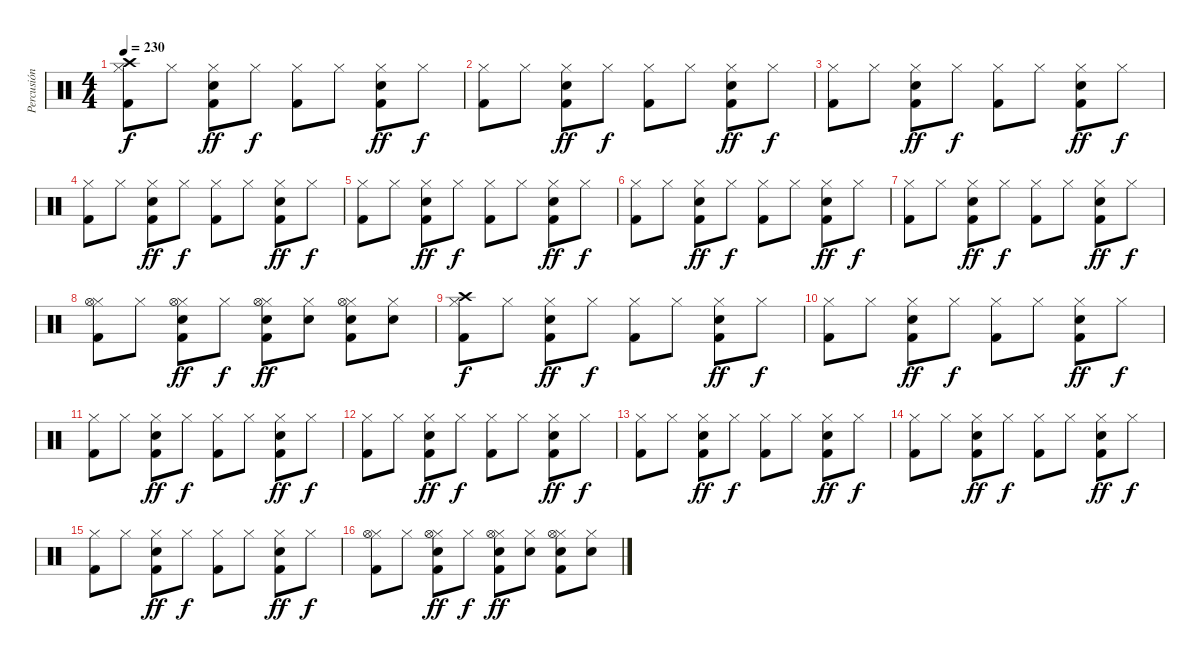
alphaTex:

\track ("Percusión" "Percusión") {instrument percussion}
\staff {score}
\articulation defaults
\ts (4 4)
\tempo 230
\clef neutral
\ks c
("Crash high (hit)" "Hi-Hat (closed)" "Kick (hit) 2").8{dy f} "Hi-Hat (closed)".8 ("Hi-Hat (closed)" "Snare (hit) 2" "Kick (hit) 2").8{dy ff} "Hi-Hat (closed)".8{dy f} ("Hi-Hat (closed)" "Kick (hit) 2").8 "Hi-Hat (closed)".8 ("Hi-Hat (closed)" "Snare (hit) 2" "Kick (hit) 2").8{dy ff} "Hi-Hat (closed)".8{dy f} |
("Hi-Hat (closed)" "Kick (hit) 2").8 "Hi-Hat (closed)".8 ("Hi-Hat (closed)" "Snare (hit) 2" "Kick (hit) 2").8{dy ff} "Hi-Hat (closed)".8{dy f} ("Hi-Hat (closed)" "Kick (hit) 2").8 "Hi-Hat (closed)".8 ("Hi-Hat (closed)" "Snare (hit) 2" "Kick (hit) 2").8{dy ff} "Hi-Hat (closed)".8{dy f} |
("Hi-Hat (closed)" "Kick (hit) 2").8 "Hi-Hat (closed)".8 ("Hi-Hat (closed)" "Snare (hit) 2" "Kick (hit) 2").8{dy ff} "Hi-Hat (closed)".8{dy f} ("Hi-Hat (closed)" "Kick (hit) 2").8 "Hi-Hat (closed)".8 ("Hi-Hat (closed)" "Snare (hit) 2" "Kick (hit) 2").8{dy ff} "Hi-Hat (closed)".8{dy f} |
("Hi-Hat (closed)" "Kick (hit) 2").8 "Hi-Hat (closed)".8 ("Hi-Hat (closed)" "Snare (hit) 2" "Kick (hit) 2").8{dy ff} "Hi-Hat (closed)".8{dy f} ("Hi-Hat (closed)" "Kick (hit) 2").8 "Hi-Hat (closed)".8 ("Hi-Hat (closed)" "Snare (hit) 2" "Kick (hit) 2").8{dy ff} "Hi-Hat (closed)".8{dy f} |
("Hi-Hat (closed)" "Kick (hit) 2").8 "Hi-Hat (closed)".8 ("Hi-Hat (closed)" "Snare (hit) 2" "Kick (hit) 2").8{dy ff} "Hi-Hat (closed)".8{dy f} ("Hi-Hat (closed)" "Kick (hit) 2").8 "Hi-Hat (closed)".8 ("Hi-Hat (closed)" "Snare (hit) 2" "Kick (hit) 2").8{dy ff} "Hi-Hat (closed)".8{dy f} |
("Hi-Hat (closed)" "Kick (hit) 2").8 "Hi-Hat (closed)".8 ("Hi-Hat (closed)" "Snare (hit) 2" "Kick (hit) 2").8{dy ff} "Hi-Hat (closed)".8{dy f} ("Hi-Hat (closed)" "Kick (hit) 2").8 "Hi-Hat (closed)".8 ("Hi-Hat (closed)" "Snare (hit) 2" "Kick (hit) 2").8{dy ff} "Hi-Hat (closed)".8{dy f} |
("Hi-Hat (closed)" "Kick (hit) 2").8 "Hi-Hat (closed)".8 ("Hi-Hat (closed)" "Snare (hit) 2" "Kick (hit) 2").8{dy ff} "Hi-Hat (closed)".8{dy f} ("Hi-Hat (closed)" "Kick (hit) 2").8 "Hi-Hat (closed)".8 ("Hi-Hat (closed)" "Snare (hit) 2" "Kick (hit) 2").8{dy ff} "Hi-Hat (closed)".8{dy f} |
("Hi-Hat (closed)" "Kick (hit) 2" "Hi-Hat (open)").8 "Hi-Hat (closed)".8 ("Hi-Hat (closed)" "Snare (hit) 2" "Kick (hit) 2" "Hi-Hat (open)").8{dy ff} "Hi-Hat (closed)".8{dy f} ("Hi-Hat (closed)" "Snare (hit) 2" "Kick (hit) 2" "Hi-Hat (open)").8{dy ff} ("Hi-Hat (closed)" "Snare (hit) 2").8 ("Hi-Hat (closed)" "Snare (hit) 2" "Kick (hit) 2" "Hi-Hat (open)").8 ("Hi-Hat (closed)" "Snare (hit) 2").8 |
("Crash high (hit)" "Hi-Hat (closed)" "Kick (hit) 2").8{dy f} "Hi-Hat (closed)".8 ("Hi-Hat (closed)" "Snare (hit) 2" "Kick (hit) 2").8{dy ff} "Hi-Hat (closed)".8{dy f} ("Hi-Hat (closed)" "Kick (hit) 2").8 "Hi-Hat (closed)".8 ("Hi-Hat (closed)" "Snare (hit) 2" "Kick (hit) 2").8{dy ff} "Hi-Hat (closed)".8{dy f} |
("Hi-Hat (closed)" "Kick (hit) 2").8 "Hi-Hat (closed)".8 ("Hi-Hat (closed)" "Snare (hit) 2" "Kick (hit) 2").8{dy ff} "Hi-Hat (closed)".8{dy f} ("Hi-Hat (closed)" "Kick (hit) 2").8 "Hi-Hat (closed)".8 ("Hi-Hat (closed)" "Snare (hit) 2" "Kick (hit) 2").8{dy ff} "Hi-Hat (closed)".8{dy f} |
("Hi-Hat (closed)" "Kick (hit) 2").8 "Hi-Hat (closed)".8 ("Hi-Hat (closed)" "Snare (hit) 2" "Kick (hit) 2").8{dy ff} "Hi-Hat (closed)".8{dy f} ("Hi-Hat (closed)" "Kick (hit) 2").8 "Hi-Hat (closed)".8 ("Hi-Hat (closed)" "Snare (hit) 2" "Kick (hit) 2").8{dy ff} "Hi-Hat (closed)".8{dy f} |
("Hi-Hat (closed)" "Kick (hit) 2").8 "Hi-Hat (closed)".8 ("Hi-Hat (closed)" "Snare (hit) 2" "Kick (hit) 2").8{dy ff} "Hi-Hat (closed)".8{dy f} ("Hi-Hat (closed)" "Kick (hit) 2").8 "Hi-Hat (closed)".8 ("Hi-Hat (closed)" "Snare (hit) 2" "Kick (hit) 2").8{dy ff} "Hi-Hat (closed)".8{dy f} |
("Hi-Hat (closed)" "Kick (hit) 2").8 "Hi-Hat (closed)".8 ("Hi-Hat (closed)" "Snare (hit) 2" "Kick (hit) 2").8{dy ff} "Hi-Hat (closed)".8{dy f} ("Hi-Hat (closed)" "Kick (hit) 2").8 "Hi-Hat (closed)".8 ("Hi-Hat (closed)" "Snare (hit) 2" "Kick (hit) 2").8{dy ff} "Hi-Hat (closed)".8{dy f} |
("Hi-Hat (closed)" "Kick (hit) 2").8 "Hi-Hat (closed)".8 ("Hi-Hat (closed)" "Snare (hit) 2" "Kick (hit) 2").8{dy ff} "Hi-Hat (closed)".8{dy f} ("Hi-Hat (closed)" "Kick (hit) 2").8 "Hi-Hat (closed)".8 ("Hi-Hat (closed)" "Snare (hit) 2" "Kick (hit) 2").8{dy ff} "Hi-Hat (closed)".8{dy f} |
("Hi-Hat (closed)" "Kick (hit) 2").8 "Hi-Hat (closed)".8 ("Hi-Hat (closed)" "Snare (hit) 2" "Kick (hit) 2").8{dy ff} "Hi-Hat (closed)".8{dy f} ("Hi-Hat (closed)" "Kick (hit) 2").8 "Hi-Hat (closed)".8 ("Hi-Hat (closed)" "Snare (hit) 2" "Kick (hit) 2").8{dy ff} "Hi-Hat (closed)".8{dy f} |
("Hi-Hat (closed)" "Kick (hit) 2" "Hi-Hat (open)").8 "Hi-Hat (closed)".8 ("Hi-Hat (closed)" "Snare (hit) 2" "Kick (hit) 2" "Hi-Hat (open)").8{dy ff} "Hi-Hat (closed)".8{dy f} ("Hi-Hat (closed)" "Snare (hit) 2" "Kick (hit) 2" "Hi-Hat (open)").8{dy ff} ("Hi-Hat (closed)" "Snare (hit) 2").8 ("Hi-Hat (closed)" "Snare (hit) 2" "Kick (hit) 2" "Hi-Hat (open)").8 ("Hi-Hat (closed)" "Snare (hit) 2").8
